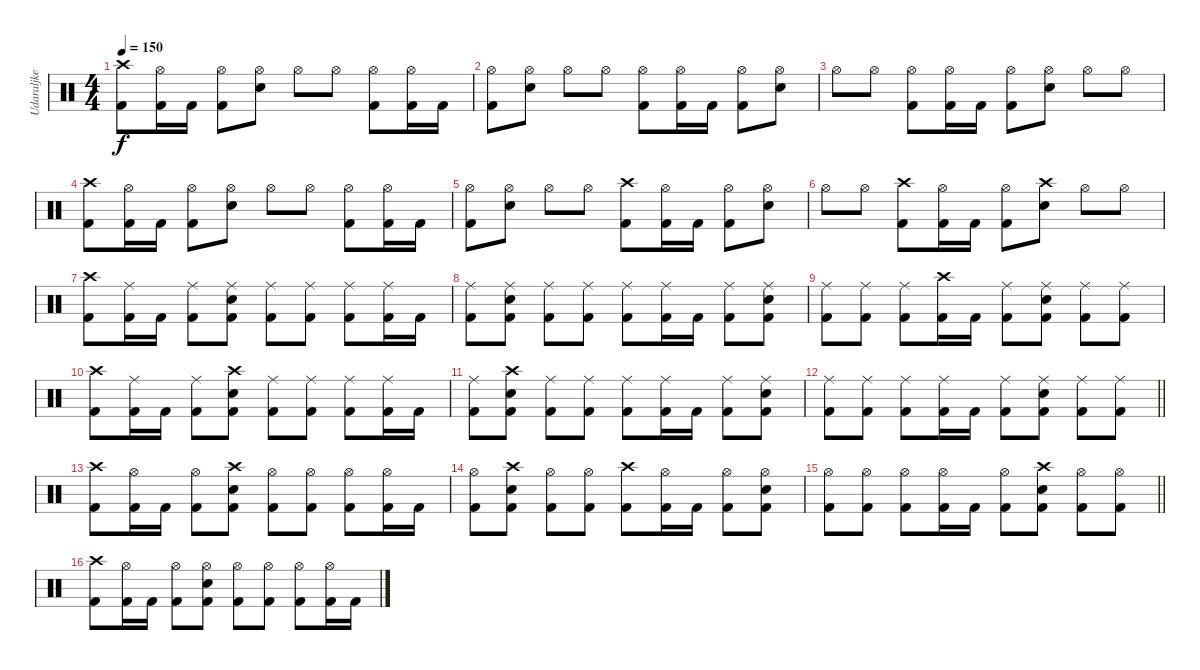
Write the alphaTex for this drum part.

\track ("Udaraljke" "Udaraljke") {instrument percussion}
\staff {score}
\articulation defaults
\ts (4 4)
\section ("" "")
\tempo 150
\clef neutral
\ks c
("Crash high (hit)" "Kick (hit) 2").8{dy f} ("Hi-Hat (open)" "Kick (hit) 2").16 "Kick (hit) 2".16 ("Hi-Hat (open)" "Kick (hit) 2").8 ("Hi-Hat (open)" "Electric Snare (hit)").8 "Hi-Hat (open)".8 "Hi-Hat (open)".8 ("Hi-Hat (open)" "Kick (hit) 2").8 ("Hi-Hat (open)" "Kick (hit) 2").16 "Kick (hit) 2".16 |
("Hi-Hat (open)" "Kick (hit) 2").8 ("Hi-Hat (open)" "Electric Snare (hit)").8 "Hi-Hat (open)".8 "Hi-Hat (open)".8 ("Hi-Hat (open)" "Kick (hit) 2").8 ("Hi-Hat (open)" "Kick (hit) 2").16 "Kick (hit) 2".16 ("Hi-Hat (open)" "Kick (hit) 2").8 ("Hi-Hat (open)" "Electric Snare (hit)").8 |
"Hi-Hat (open)".8 "Hi-Hat (open)".8 ("Hi-Hat (open)" "Kick (hit) 2").8 ("Hi-Hat (open)" "Kick (hit) 2").16 "Kick (hit) 2".16 ("Hi-Hat (open)" "Kick (hit) 2").8 ("Hi-Hat (open)" "Electric Snare (hit)").8 "Hi-Hat (open)".8 "Hi-Hat (open)".8 |
("Crash high (hit)" "Kick (hit) 2").8 ("Hi-Hat (open)" "Kick (hit) 2").16 "Kick (hit) 2".16 ("Hi-Hat (open)" "Kick (hit) 2").8 ("Hi-Hat (open)" "Electric Snare (hit)").8 "Hi-Hat (open)".8 "Hi-Hat (open)".8 ("Hi-Hat (open)" "Kick (hit) 2").8 ("Hi-Hat (open)" "Kick (hit) 2").16 "Kick (hit) 2".16 |
("Hi-Hat (open)" "Kick (hit) 2").8 ("Hi-Hat (open)" "Electric Snare (hit)").8 "Hi-Hat (open)".8 "Hi-Hat (open)".8 ("Crash high (hit)" "Kick (hit) 2").8 ("Hi-Hat (open)" "Kick (hit) 2").16 "Kick (hit) 2".16 ("Hi-Hat (open)" "Kick (hit) 2").8 ("Hi-Hat (open)" "Electric Snare (hit)").8 |
"Hi-Hat (open)".8 "Hi-Hat (open)".8 ("Crash high (hit)" "Kick (hit) 2").8 ("Hi-Hat (open)" "Kick (hit) 2").16 "Kick (hit) 2".16 ("Hi-Hat (open)" "Kick (hit) 2").8 ("Crash high (hit)" "Electric Snare (hit)").8 "Hi-Hat (open)".8 "Hi-Hat (open)".8 |
("Crash high (hit)" "Kick (hit) 2").8 ("Ride (middle)" "Kick (hit) 2").16 "Kick (hit) 2".16 ("Ride (middle)" "Kick (hit) 2").8 ("Ride (middle)" "Electric Snare (hit)" "Kick (hit) 2").8 ("Ride (middle)" "Kick (hit) 2").8 ("Ride (middle)" "Kick (hit) 2").8 ("Ride (middle)" "Kick (hit) 2").8 ("Ride (middle)" "Kick (hit) 2").16 "Kick (hit) 2".16 |
("Ride (middle)" "Kick (hit) 2").8 ("Ride (middle)" "Electric Snare (hit)" "Kick (hit) 2").8 ("Ride (middle)" "Kick (hit) 2").8 ("Ride (middle)" "Kick (hit) 2").8 ("Ride (middle)" "Kick (hit) 2").8 ("Ride (middle)" "Kick (hit) 2").16 "Kick (hit) 2".16 ("Ride (middle)" "Kick (hit) 2").8 ("Ride (middle)" "Electric Snare (hit)" "Kick (hit) 2").8 |
("Ride (middle)" "Kick (hit) 2").8 ("Ride (middle)" "Kick (hit) 2").8 ("Ride (middle)" "Kick (hit) 2").8 ("Crash high (hit)" "Kick (hit) 2").16 "Kick (hit) 2".16 ("Ride (middle)" "Kick (hit) 2").8 ("Ride (middle)" "Electric Snare (hit)" "Kick (hit) 2").8 ("Ride (middle)" "Kick (hit) 2").8 ("Ride (middle)" "Kick (hit) 2").8 |
("Crash high (hit)" "Kick (hit) 2").8 ("Ride (middle)" "Kick (hit) 2").16 "Kick (hit) 2".16 ("Ride (middle)" "Kick (hit) 2").8 ("Crash high (hit)" "Electric Snare (hit)" "Kick (hit) 2").8 ("Ride (middle)" "Kick (hit) 2").8 ("Ride (middle)" "Kick (hit) 2").8 ("Ride (middle)" "Kick (hit) 2").8 ("Ride (middle)" "Kick (hit) 2").16 "Kick (hit) 2".16 |
("Ride (middle)" "Kick (hit) 2").8 ("Crash high (hit)" "Electric Snare (hit)" "Kick (hit) 2").8 ("Ride (middle)" "Kick (hit) 2").8 ("Ride (middle)" "Kick (hit) 2").8 ("Ride (middle)" "Kick (hit) 2").8 ("Ride (middle)" "Kick (hit) 2").16 "Kick (hit) 2".16 ("Ride (middle)" "Kick (hit) 2").8 ("Ride (middle)" "Electric Snare (hit)" "Kick (hit) 2").8 |
\barLineRight lightlight
("Ride (middle)" "Kick (hit) 2").8 ("Ride (middle)" "Kick (hit) 2").8 ("Ride (middle)" "Kick (hit) 2").8 ("Ride (middle)" "Kick (hit) 2").16 "Kick (hit) 2".16 ("Ride (middle)" "Kick (hit) 2").8 ("Ride (middle)" "Electric Snare (hit)" "Kick (hit) 2").8 ("Ride (middle)" "Kick (hit) 2").8 ("Ride (middle)" "Kick (hit) 2").8 |
\section ("" "")
("Crash high (hit)" "Kick (hit) 2").8 ("Hi-Hat (open)" "Kick (hit) 2").16 "Kick (hit) 2".16 ("Hi-Hat (open)" "Kick (hit) 2").8 ("Crash high (hit)" "Electric Snare (hit)" "Kick (hit) 2").8 ("Hi-Hat (open)" "Kick (hit) 2").8 ("Hi-Hat (open)" "Kick (hit) 2").8 ("Hi-Hat (open)" "Kick (hit) 2").8 ("Hi-Hat (open)" "Kick (hit) 2").16 "Kick (hit) 2".16 |
("Hi-Hat (open)" "Kick (hit) 2").8 ("Crash high (hit)" "Electric Snare (hit)" "Kick (hit) 2").8 ("Hi-Hat (open)" "Kick (hit) 2").8 ("Hi-Hat (open)" "Kick (hit) 2").8 ("Crash high (hit)" "Kick (hit) 2").8 ("Hi-Hat (open)" "Kick (hit) 2").16 "Kick (hit) 2".16 ("Hi-Hat (open)" "Kick (hit) 2").8 ("Hi-Hat (open)" "Electric Snare (hit)" "Kick (hit) 2").8 |
\barLineRight lightlight
("Hi-Hat (open)" "Kick (hit) 2").8 ("Hi-Hat (open)" "Kick (hit) 2").8 ("Hi-Hat (open)" "Kick (hit) 2").8 ("Hi-Hat (open)" "Kick (hit) 2").16 "Kick (hit) 2".16 ("Hi-Hat (open)" "Kick (hit) 2").8 ("Crash high (hit)" "Electric Snare (hit)" "Kick (hit) 2").8 ("Hi-Hat (open)" "Kick (hit) 2").8 ("Hi-Hat (open)" "Kick (hit) 2").8 |
("Crash high (hit)" "Kick (hit) 2").8 ("Hi-Hat (open)" "Kick (hit) 2").16 "Kick (hit) 2".16 ("Hi-Hat (open)" "Kick (hit) 2").8 ("Hi-Hat (open)" "Electric Snare (hit)" "Kick (hit) 2").8 ("Hi-Hat (open)" "Kick (hit) 2").8 ("Hi-Hat (open)" "Kick (hit) 2").8 ("Hi-Hat (open)" "Kick (hit) 2").8 ("Hi-Hat (open)" "Kick (hit) 2").16 "Kick (hit) 2".16
